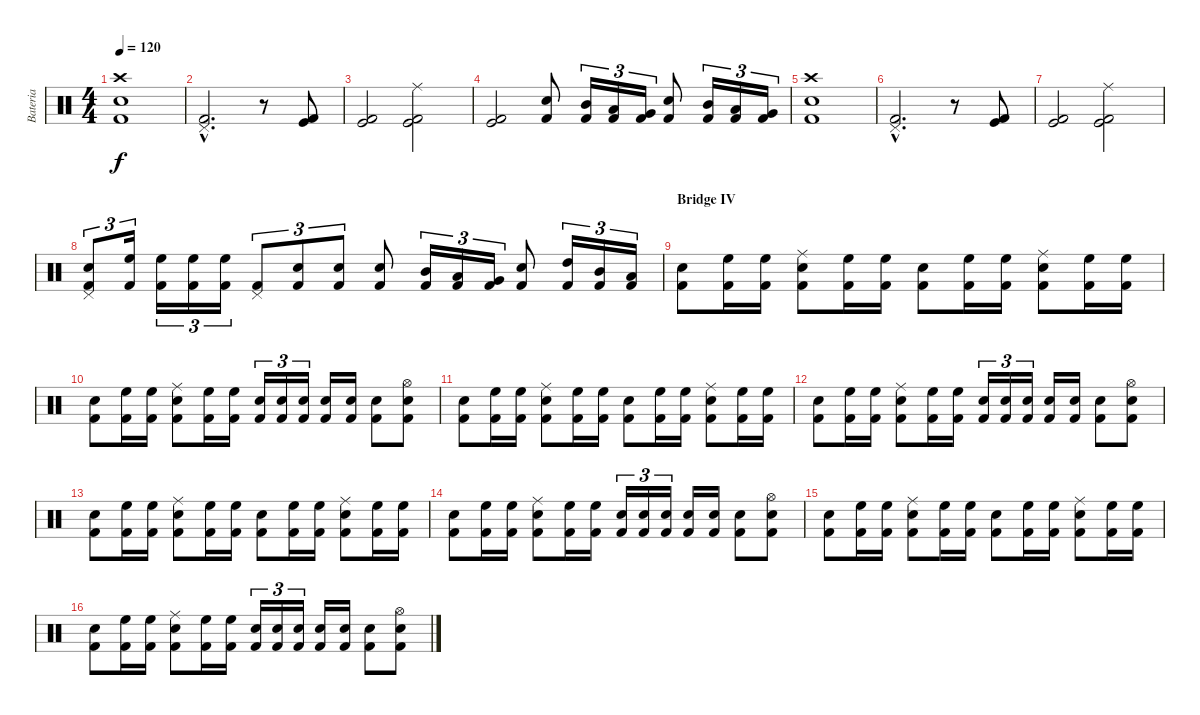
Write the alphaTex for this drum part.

\track ("Bateria" "Bateria") {instrument percussion}
\staff {score}
\articulation defaults
\ts (4 4)
\tempo 120
\clef neutral
\ks c
("Crash high (hit)" "Snare (hit) 2" "Kick (hit) 2").1{dy f} |
("Pedal Hi-Hat (hit)"{hac} "Kick (hit) 2"{hac}).2{d} r.8 ("Kick (hit)" "Kick (hit) 2").8 |
("Kick (hit)" "Kick (hit) 2").2 ("Ride (middle)" "Kick (hit)" "Kick (hit) 2").2 |
("Kick (hit)" "Kick (hit) 2").2 ("Electric Snare (hit)" "Kick (hit) 2").8 ("Mid Tom (hit)" "Kick (hit) 2").16{tu (3 2)} ("Low Tom (hit)" "Kick (hit) 2").16{tu (3 2)} ("Very Low Tom (hit)" "Kick (hit) 2").16{tu (3 2)} ("Electric Snare (hit)" "Kick (hit) 2").8 ("Mid Tom (hit)" "Kick (hit) 2").16{tu (3 2)} ("Low Tom (hit)" "Kick (hit) 2").16{tu (3 2)} ("Very Low Tom (hit)" "Kick (hit) 2").16{tu (3 2)} |
("Crash high (hit)" "Snare (hit) 2" "Kick (hit) 2").1 |
("Pedal Hi-Hat (hit)"{hac} "Kick (hit) 2"{hac}).2{d} r.8 ("Kick (hit)" "Kick (hit) 2").8 |
("Kick (hit)" "Kick (hit) 2").2 ("Ride (middle)" "Kick (hit)" "Kick (hit) 2").2 |
("Pedal Hi-Hat (hit)" "Snare (hit) 2" "Kick (hit) 2").8{tu (3 2)} ("High Floor Tom (hit)" "Kick (hit) 2").16{tu (3 2)} ("High Floor Tom (hit)" "Kick (hit) 2").16{tu (3 2)} ("High Floor Tom (hit)" "Kick (hit) 2").16{tu (3 2)} ("High Floor Tom (hit)" "Kick (hit) 2").16{tu (3 2)} ("Pedal Hi-Hat (hit)" "Kick (hit) 2").8{tu (3 2)} ("Snare (hit) 2" "Kick (hit) 2").8{tu (3 2)} ("Snare (hit) 2" "Kick (hit) 2").8{tu (3 2)} ("Electric Snare (hit)" "Kick (hit) 2").8 ("Mid Tom (hit)" "Kick (hit) 2").16{tu (3 2)} ("Low Tom (hit)" "Kick (hit) 2").16{tu (3 2)} ("Very Low Tom (hit)" "Kick (hit) 2").16{tu (3 2)} ("Electric Snare (hit)" "Kick (hit) 2").8 ("High Tom (hit)" "Kick (hit) 2").16{tu (3 2)} ("Mid Tom (hit)" "Kick (hit) 2").16{tu (3 2)} ("Low Tom (hit)" "Kick (hit) 2").16{tu (3 2)} |
\section ("" "Bridge IV")
("Snare (hit) 2" "Kick (hit) 2").8 ("High Floor Tom (hit)" "Kick (hit) 2").16 ("High Floor Tom (hit)" "Kick (hit) 2").16 ("Ride (middle)" "Snare (hit) 2" "Kick (hit) 2").8 ("High Floor Tom (hit)" "Kick (hit) 2").16 ("High Floor Tom (hit)" "Kick (hit) 2").16 ("Snare (hit) 2" "Kick (hit) 2").8 ("High Floor Tom (hit)" "Kick (hit) 2").16 ("High Floor Tom (hit)" "Kick (hit) 2").16 ("Ride (middle)" "Snare (hit) 2" "Kick (hit) 2").8 ("High Floor Tom (hit)" "Kick (hit) 2").16 ("High Floor Tom (hit)" "Kick (hit) 2").16 |
("Snare (hit) 2" "Kick (hit) 2").8 ("High Floor Tom (hit)" "Kick (hit) 2").16 ("High Floor Tom (hit)" "Kick (hit) 2").16 ("Ride (middle)" "Snare (hit) 2" "Kick (hit) 2").8 ("High Floor Tom (hit)" "Kick (hit) 2").16 ("High Floor Tom (hit)" "Kick (hit) 2").16 ("Snare (hit) 2" "Kick (hit) 2").16{tu (3 2)} ("Snare (hit) 2" "Kick (hit) 2").16{tu (3 2)} ("Snare (hit) 2" "Kick (hit) 2").16{tu (3 2)} ("Snare (hit) 2" "Kick (hit) 2").16 ("Snare (hit) 2" "Kick (hit) 2").16 ("Snare (hit) 2" "Kick (hit) 2").8 ("Hi-Hat (open)" "Snare (hit) 2" "Kick (hit) 2").8 |
("Snare (hit) 2" "Kick (hit) 2").8 ("High Floor Tom (hit)" "Kick (hit) 2").16 ("High Floor Tom (hit)" "Kick (hit) 2").16 ("Ride (middle)" "Snare (hit) 2" "Kick (hit) 2").8 ("High Floor Tom (hit)" "Kick (hit) 2").16 ("High Floor Tom (hit)" "Kick (hit) 2").16 ("Snare (hit) 2" "Kick (hit) 2").8 ("High Floor Tom (hit)" "Kick (hit) 2").16 ("High Floor Tom (hit)" "Kick (hit) 2").16 ("Ride (middle)" "Snare (hit) 2" "Kick (hit) 2").8 ("High Floor Tom (hit)" "Kick (hit) 2").16 ("High Floor Tom (hit)" "Kick (hit) 2").16 |
("Snare (hit) 2" "Kick (hit) 2").8 ("High Floor Tom (hit)" "Kick (hit) 2").16 ("High Floor Tom (hit)" "Kick (hit) 2").16 ("Ride (middle)" "Snare (hit) 2" "Kick (hit) 2").8 ("High Floor Tom (hit)" "Kick (hit) 2").16 ("High Floor Tom (hit)" "Kick (hit) 2").16 ("Snare (hit) 2" "Kick (hit) 2").16{tu (3 2)} ("Snare (hit) 2" "Kick (hit) 2").16{tu (3 2)} ("Snare (hit) 2" "Kick (hit) 2").16{tu (3 2)} ("Snare (hit) 2" "Kick (hit) 2").16 ("Snare (hit) 2" "Kick (hit) 2").16 ("Snare (hit) 2" "Kick (hit) 2").8 ("Hi-Hat (open)" "Snare (hit) 2" "Kick (hit) 2").8 |
("Snare (hit) 2" "Kick (hit) 2").8 ("High Floor Tom (hit)" "Kick (hit) 2").16 ("High Floor Tom (hit)" "Kick (hit) 2").16 ("Ride (middle)" "Snare (hit) 2" "Kick (hit) 2").8 ("High Floor Tom (hit)" "Kick (hit) 2").16 ("High Floor Tom (hit)" "Kick (hit) 2").16 ("Snare (hit) 2" "Kick (hit) 2").8 ("High Floor Tom (hit)" "Kick (hit) 2").16 ("High Floor Tom (hit)" "Kick (hit) 2").16 ("Ride (middle)" "Snare (hit) 2" "Kick (hit) 2").8 ("High Floor Tom (hit)" "Kick (hit) 2").16 ("High Floor Tom (hit)" "Kick (hit) 2").16 |
("Snare (hit) 2" "Kick (hit) 2").8 ("High Floor Tom (hit)" "Kick (hit) 2").16 ("High Floor Tom (hit)" "Kick (hit) 2").16 ("Ride (middle)" "Snare (hit) 2" "Kick (hit) 2").8 ("High Floor Tom (hit)" "Kick (hit) 2").16 ("High Floor Tom (hit)" "Kick (hit) 2").16 ("Snare (hit) 2" "Kick (hit) 2").16{tu (3 2)} ("Snare (hit) 2" "Kick (hit) 2").16{tu (3 2)} ("Snare (hit) 2" "Kick (hit) 2").16{tu (3 2)} ("Snare (hit) 2" "Kick (hit) 2").16 ("Snare (hit) 2" "Kick (hit) 2").16 ("Snare (hit) 2" "Kick (hit) 2").8 ("Hi-Hat (open)" "Snare (hit) 2" "Kick (hit) 2").8 |
("Snare (hit) 2" "Kick (hit) 2").8 ("High Floor Tom (hit)" "Kick (hit) 2").16 ("High Floor Tom (hit)" "Kick (hit) 2").16 ("Ride (middle)" "Snare (hit) 2" "Kick (hit) 2").8 ("High Floor Tom (hit)" "Kick (hit) 2").16 ("High Floor Tom (hit)" "Kick (hit) 2").16 ("Snare (hit) 2" "Kick (hit) 2").8 ("High Floor Tom (hit)" "Kick (hit) 2").16 ("High Floor Tom (hit)" "Kick (hit) 2").16 ("Ride (middle)" "Snare (hit) 2" "Kick (hit) 2").8 ("High Floor Tom (hit)" "Kick (hit) 2").16 ("High Floor Tom (hit)" "Kick (hit) 2").16 |
("Snare (hit) 2" "Kick (hit) 2").8 ("High Floor Tom (hit)" "Kick (hit) 2").16 ("High Floor Tom (hit)" "Kick (hit) 2").16 ("Ride (middle)" "Snare (hit) 2" "Kick (hit) 2").8 ("High Floor Tom (hit)" "Kick (hit) 2").16 ("High Floor Tom (hit)" "Kick (hit) 2").16 ("Snare (hit) 2" "Kick (hit) 2").16{tu (3 2)} ("Snare (hit) 2" "Kick (hit) 2").16{tu (3 2)} ("Snare (hit) 2" "Kick (hit) 2").16{tu (3 2)} ("Snare (hit) 2" "Kick (hit) 2").16 ("Snare (hit) 2" "Kick (hit) 2").16 ("Snare (hit) 2" "Kick (hit) 2").8 ("Hi-Hat (open)" "Snare (hit) 2" "Kick (hit) 2").8
